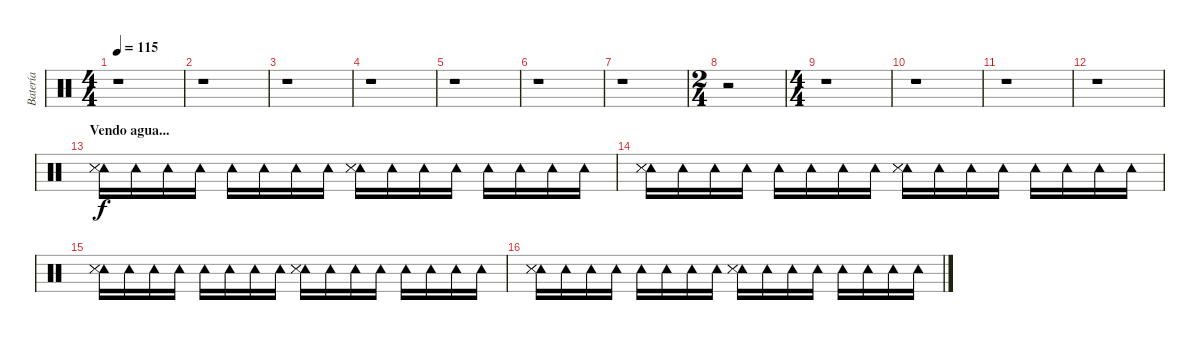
\track ("Batería" "Batería") {instrument percussion}
\staff {score}
\articulation defaults
\ts (4 4)
\tempo 115
\clef neutral
\ks c
r.1{dy f} |
r.1 |
r.1 |
r.1 |
r.1 |
r.1 |
r.1 |
\ts (2 4)
r.2 |
\ts (4 4)
r.1 |
r.1 |
r.1 |
r.1 |
\section ("" "Vendo agua...")
("Tambourine (hit)" "Snare (side stick) 3" "Snare (side stick) 3").16 "Tambourine (hit)".16 "Tambourine (hit)".16 "Tambourine (hit)".16 "Tambourine (hit)".16 "Tambourine (hit)".16 "Tambourine (hit)".16 "Tambourine (hit)".16 ("Tambourine (hit)" "Snare (side stick) 3" "Snare (side stick) 3").16 "Tambourine (hit)".16 "Tambourine (hit)".16 "Tambourine (hit)".16 "Tambourine (hit)".16 "Tambourine (hit)".16 "Tambourine (hit)".16 "Tambourine (hit)".16 |
("Tambourine (hit)" "Snare (side stick) 3" "Snare (side stick) 3").16 "Tambourine (hit)".16 "Tambourine (hit)".16 "Tambourine (hit)".16 "Tambourine (hit)".16 "Tambourine (hit)".16 "Tambourine (hit)".16 "Tambourine (hit)".16 ("Tambourine (hit)" "Snare (side stick) 3" "Snare (side stick) 3").16 "Tambourine (hit)".16 "Tambourine (hit)".16 "Tambourine (hit)".16 "Tambourine (hit)".16 "Tambourine (hit)".16 "Tambourine (hit)".16 "Tambourine (hit)".16 |
("Tambourine (hit)" "Snare (side stick) 3" "Snare (side stick) 3").16 "Tambourine (hit)".16 "Tambourine (hit)".16 "Tambourine (hit)".16 "Tambourine (hit)".16 "Tambourine (hit)".16 "Tambourine (hit)".16 "Tambourine (hit)".16 ("Tambourine (hit)" "Snare (side stick) 3" "Snare (side stick) 3").16 "Tambourine (hit)".16 "Tambourine (hit)".16 "Tambourine (hit)".16 "Tambourine (hit)".16 "Tambourine (hit)".16 "Tambourine (hit)".16 "Tambourine (hit)".16 |
("Tambourine (hit)" "Snare (side stick) 3" "Snare (side stick) 3").16 "Tambourine (hit)".16 "Tambourine (hit)".16 "Tambourine (hit)".16 "Tambourine (hit)".16 "Tambourine (hit)".16 "Tambourine (hit)".16 "Tambourine (hit)".16 ("Tambourine (hit)" "Snare (side stick) 3" "Snare (side stick) 3").16 "Tambourine (hit)".16 "Tambourine (hit)".16 "Tambourine (hit)".16 "Tambourine (hit)".16 "Tambourine (hit)".16 "Tambourine (hit)".16 "Tambourine (hit)".16
